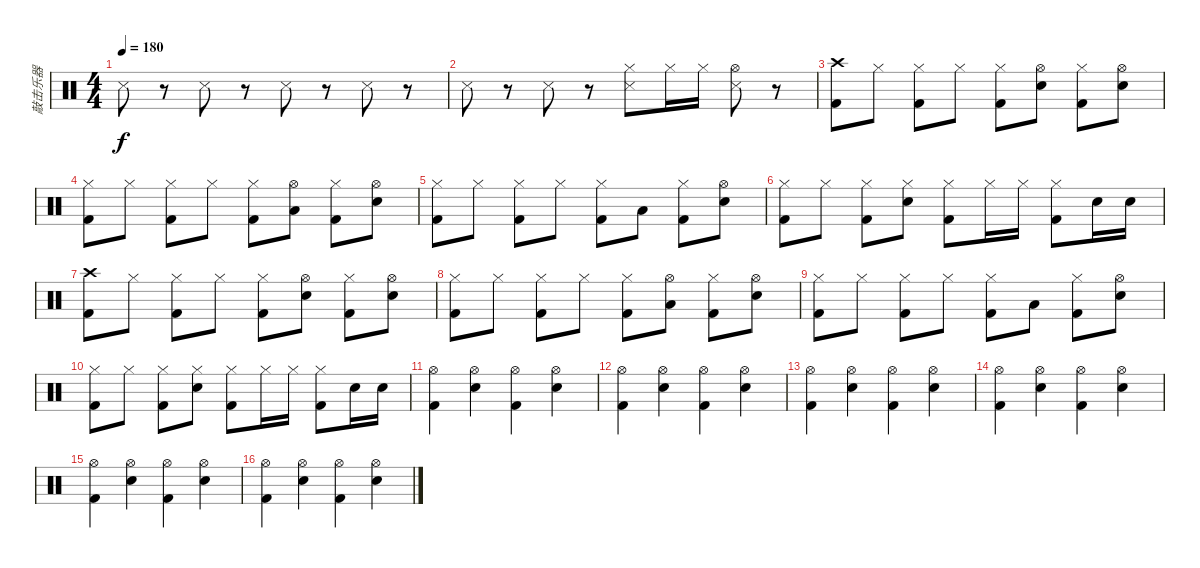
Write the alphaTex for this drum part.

\track ("敲击乐器" "敲击乐器") {instrument percussion}
\staff {score}
\articulation defaults
\ts (4 4)
\tempo 180
\clef neutral
\ks c "Snare (side stick) 3".8{dy f}
r.8 "Snare (side stick) 3".8 r.8 "Snare (side stick) 3".8 r.8 "Snare (side stick) 3".8 r.8 |
"Snare (side stick) 3".8 r.8 "Snare (side stick) 3".8 r.8 ("Hi-Hat (closed)" "Snare (side stick) 3").8 "Hi-Hat (closed)".16 "Hi-Hat (closed)".16 ("Hi-Hat (open)" "Snare (side stick) 3").8 r.8 |
("Crash high (hit)" "Kick (hit) 2").8 "Hi-Hat (closed)".8 ("Hi-Hat (closed)" "Kick (hit) 2").8 "Hi-Hat (closed)".8 ("Hi-Hat (closed)" "Kick (hit) 2").8 ("Hi-Hat (open)" "Snare (hit) 2").8 ("Hi-Hat (closed)" "Kick (hit) 2").8 ("Hi-Hat (open)" "Snare (hit) 2").8 |
("Hi-Hat (closed)" "Kick (hit) 2").8 "Hi-Hat (closed)".8 ("Hi-Hat (closed)" "Kick (hit) 2").8 "Hi-Hat (closed)".8 ("Hi-Hat (closed)" "Kick (hit) 2").8 ("Hi-Hat (open)" "Low Floor Tom (hit)").8 ("Hi-Hat (closed)" "Kick (hit) 2").8 ("Hi-Hat (open)" "Snare (hit) 2").8 |
("Hi-Hat (closed)" "Kick (hit) 2").8 "Hi-Hat (closed)".8 ("Hi-Hat (closed)" "Kick (hit) 2").8 "Hi-Hat (closed)".8 ("Hi-Hat (closed)" "Kick (hit) 2").8 "Low Floor Tom (hit)".8 ("Hi-Hat (closed)" "Kick (hit) 2").8 ("Hi-Hat (open)" "Snare (hit) 2").8 |
("Hi-Hat (closed)" "Kick (hit) 2").8 "Hi-Hat (closed)".8 ("Hi-Hat (closed)" "Kick (hit) 2").8 ("Hi-Hat (closed)" "Snare (hit) 2").8 ("Hi-Hat (closed)" "Kick (hit) 2").8 "Hi-Hat (closed)".16 "Hi-Hat (closed)".16 ("Hi-Hat (closed)" "Kick (hit) 2").8 "Snare (hit) 2".16 "Snare (hit) 2".16 |
("Crash high (hit)" "Kick (hit) 2").8 "Hi-Hat (closed)".8 ("Hi-Hat (closed)" "Kick (hit) 2").8 "Hi-Hat (closed)".8 ("Hi-Hat (closed)" "Kick (hit) 2").8 ("Hi-Hat (open)" "Snare (hit) 2").8 ("Hi-Hat (closed)" "Kick (hit) 2").8 ("Hi-Hat (open)" "Snare (hit) 2").8 |
("Hi-Hat (closed)" "Kick (hit) 2").8 "Hi-Hat (closed)".8 ("Hi-Hat (closed)" "Kick (hit) 2").8 "Hi-Hat (closed)".8 ("Hi-Hat (closed)" "Kick (hit) 2").8 ("Hi-Hat (open)" "Low Floor Tom (hit)").8 ("Hi-Hat (closed)" "Kick (hit) 2").8 ("Hi-Hat (open)" "Snare (hit) 2").8 |
("Hi-Hat (closed)" "Kick (hit) 2").8 "Hi-Hat (closed)".8 ("Hi-Hat (closed)" "Kick (hit) 2").8 "Hi-Hat (closed)".8 ("Hi-Hat (closed)" "Kick (hit) 2").8 "Low Floor Tom (hit)".8 ("Hi-Hat (closed)" "Kick (hit) 2").8 ("Hi-Hat (open)" "Snare (hit) 2").8 |
("Hi-Hat (closed)" "Kick (hit) 2").8 "Hi-Hat (closed)".8 ("Hi-Hat (closed)" "Kick (hit) 2").8 ("Hi-Hat (closed)" "Snare (hit) 2").8 ("Hi-Hat (closed)" "Kick (hit) 2").8 "Hi-Hat (closed)".16 "Hi-Hat (closed)".16 ("Hi-Hat (closed)" "Kick (hit) 2").8 "Snare (hit) 2".16 "Snare (hit) 2".16 |
("Hi-Hat (open)" "Kick (hit) 2").4 ("Hi-Hat (open)" "Snare (hit) 2").4 ("Hi-Hat (open)" "Kick (hit) 2").4 ("Hi-Hat (open)" "Snare (hit) 2").4 |
("Hi-Hat (open)" "Kick (hit) 2").4 ("Hi-Hat (open)" "Snare (hit) 2").4 ("Hi-Hat (open)" "Kick (hit) 2").4 ("Hi-Hat (open)" "Snare (hit) 2").4 |
("Hi-Hat (open)" "Kick (hit) 2").4 ("Hi-Hat (open)" "Snare (hit) 2").4 ("Hi-Hat (open)" "Kick (hit) 2").4 ("Hi-Hat (open)" "Snare (hit) 2").4 |
("Hi-Hat (open)" "Kick (hit) 2").4 ("Hi-Hat (open)" "Snare (hit) 2").4 ("Hi-Hat (open)" "Kick (hit) 2").4 ("Hi-Hat (open)" "Snare (hit) 2").4 |
("Hi-Hat (open)" "Kick (hit) 2").4 ("Hi-Hat (open)" "Snare (hit) 2").4 ("Hi-Hat (open)" "Kick (hit) 2").4 ("Hi-Hat (open)" "Snare (hit) 2").4 |
("Hi-Hat (open)" "Kick (hit) 2").4 ("Hi-Hat (open)" "Snare (hit) 2").4 ("Hi-Hat (open)" "Kick (hit) 2").4 ("Hi-Hat (open)" "Snare (hit) 2").4
